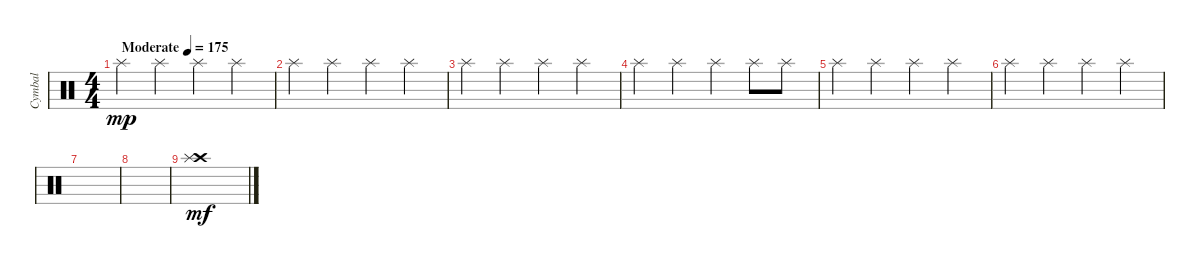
\track ("Cymbal" "Cymbal") {instrument percussion}
\staff {score}
\articulation defaults
\ts (4 4)
\tempo (175 "Moderate")
\clef neutral
\ks c "Splash (hit)".4{dy mp} "Splash (hit)".4 "Splash (hit)".4 "Splash (hit)".4
|
"Splash (hit)".4 "Splash (hit)".4 "Splash (hit)".4 "Splash (hit)".4 |
"Splash (hit)".4 "Splash (hit)".4 "Splash (hit)".4 "Splash (hit)".4 |
"Splash (hit)".4 "Splash (hit)".4 "Splash (hit)".4 "Splash (hit)".8 "Splash (hit)".8 |
"Splash (hit)".4 "Splash (hit)".4 "Splash (hit)".4 "Splash (hit)".4 |
"Splash (hit)".4 "Splash (hit)".4 "Splash (hit)".4 "Splash (hit)".4 |
|
|
("Crash high (hit)" "Splash (hit)").1{dy mf}
